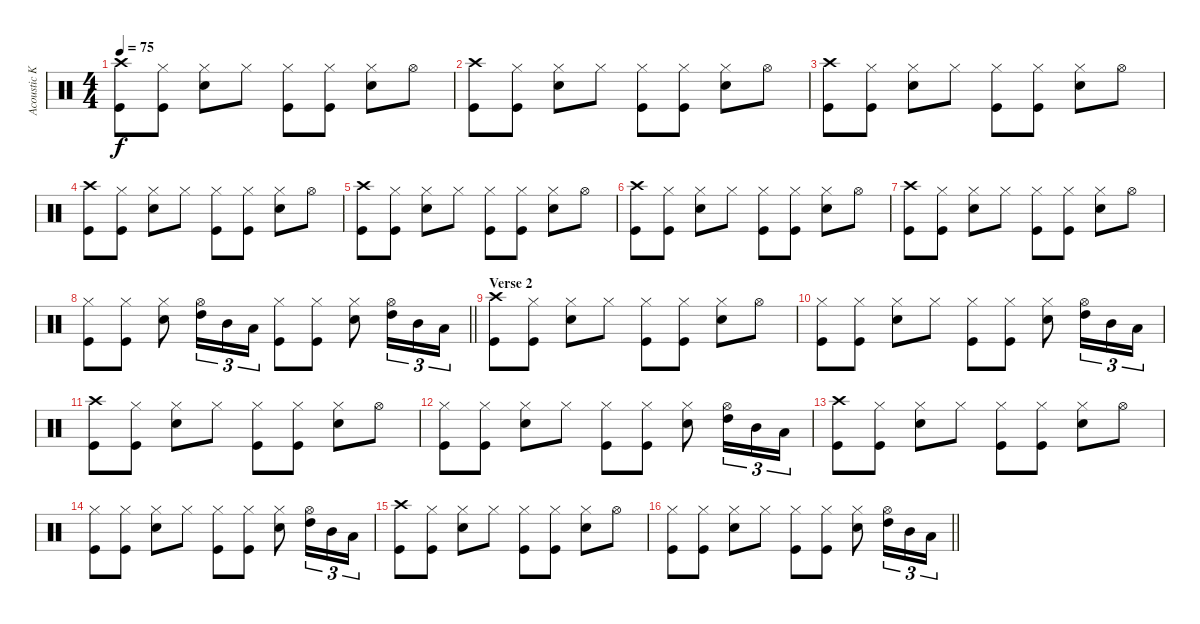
\track ("Acoustic Kit" "Acoustic K") {instrument percussion}
\staff {score}
\articulation defaults
\ts (4 4)
\tempo 75
\clef neutral
\ks c
("Crash high (hit)" "Kick (hit)").8{dy f} ("Hi-Hat (closed)" "Kick (hit)").8 ("Hi-Hat (closed)" "Snare (hit) 2").8 "Hi-Hat (closed)".8 ("Hi-Hat (closed)" "Kick (hit)").8 ("Hi-Hat (closed)" "Kick (hit)").8 ("Hi-Hat (closed)" "Snare (hit) 2").8 "Hi-Hat (open)".8 |
("Crash high (hit)" "Kick (hit)").8 ("Hi-Hat (closed)" "Kick (hit)").8 ("Hi-Hat (closed)" "Snare (hit) 2").8 "Hi-Hat (closed)".8 ("Hi-Hat (closed)" "Kick (hit)").8 ("Hi-Hat (closed)" "Kick (hit)").8 ("Hi-Hat (closed)" "Snare (hit) 2").8 "Hi-Hat (open)".8 |
("Crash high (hit)" "Kick (hit)").8 ("Hi-Hat (closed)" "Kick (hit)").8 ("Hi-Hat (closed)" "Snare (hit) 2").8 "Hi-Hat (closed)".8 ("Hi-Hat (closed)" "Kick (hit)").8 ("Hi-Hat (closed)" "Kick (hit)").8 ("Hi-Hat (closed)" "Snare (hit) 2").8 "Hi-Hat (open)".8 |
("Crash high (hit)" "Kick (hit)").8 ("Hi-Hat (closed)" "Kick (hit)").8 ("Hi-Hat (closed)" "Snare (hit) 2").8 "Hi-Hat (closed)".8 ("Hi-Hat (closed)" "Kick (hit)").8 ("Hi-Hat (closed)" "Kick (hit)").8 ("Hi-Hat (closed)" "Snare (hit) 2").8 "Hi-Hat (open)".8 |
("Crash high (hit)" "Kick (hit)").8 ("Hi-Hat (closed)" "Kick (hit)").8 ("Hi-Hat (closed)" "Snare (hit) 2").8 "Hi-Hat (closed)".8 ("Hi-Hat (closed)" "Kick (hit)").8 ("Hi-Hat (closed)" "Kick (hit)").8 ("Hi-Hat (closed)" "Snare (hit) 2").8 "Hi-Hat (open)".8 |
("Crash high (hit)" "Kick (hit)").8 ("Hi-Hat (closed)" "Kick (hit)").8 ("Hi-Hat (closed)" "Snare (hit) 2").8 "Hi-Hat (closed)".8 ("Hi-Hat (closed)" "Kick (hit)").8 ("Hi-Hat (closed)" "Kick (hit)").8 ("Hi-Hat (closed)" "Snare (hit) 2").8 "Hi-Hat (open)".8 |
("Crash high (hit)" "Kick (hit)").8 ("Hi-Hat (closed)" "Kick (hit)").8 ("Hi-Hat (closed)" "Snare (hit) 2").8 "Hi-Hat (closed)".8 ("Hi-Hat (closed)" "Kick (hit)").8 ("Hi-Hat (closed)" "Kick (hit)").8 ("Hi-Hat (closed)" "Snare (hit) 2").8 "Hi-Hat (open)".8 |
\barLineRight lightlight
("Hi-Hat (closed)" "Kick (hit)").8 ("Hi-Hat (closed)" "Kick (hit)").8 ("Hi-Hat (closed)" "Snare (hit) 2").8 ("Hi-Hat (open)" "High Tom (hit)").16{tu (3 2)} "Mid Tom (hit)".16{tu (3 2)} "Low Tom (hit)".16{tu (3 2)} ("Hi-Hat (closed)" "Kick (hit)").8 ("Hi-Hat (closed)" "Kick (hit)").8 ("Hi-Hat (closed)" "Snare (hit) 2").8 ("Hi-Hat (open)" "High Tom (hit)").16{tu (3 2)} "Mid Tom (hit)".16{tu (3 2)} "Low Tom (hit)".16{tu (3 2)} |
\section ("" "Verse 2")
("Crash high (hit)" "Kick (hit)").8 ("Hi-Hat (closed)" "Kick (hit)").8 ("Hi-Hat (closed)" "Snare (hit) 2").8 "Hi-Hat (closed)".8 ("Hi-Hat (closed)" "Kick (hit)").8 ("Hi-Hat (closed)" "Kick (hit)").8 ("Hi-Hat (closed)" "Snare (hit) 2").8 "Hi-Hat (open)".8 |
("Hi-Hat (closed)" "Kick (hit)").8 ("Hi-Hat (closed)" "Kick (hit)").8 ("Hi-Hat (closed)" "Snare (hit) 2").8 "Hi-Hat (closed)".8 ("Hi-Hat (closed)" "Kick (hit)").8 ("Hi-Hat (closed)" "Kick (hit)").8 ("Hi-Hat (closed)" "Snare (hit) 2").8 ("Hi-Hat (open)" "High Tom (hit)").16{tu (3 2)} "Mid Tom (hit)".16{tu (3 2)} "Low Tom (hit)".16{tu (3 2)} |
("Crash high (hit)" "Kick (hit)").8 ("Hi-Hat (closed)" "Kick (hit)").8 ("Hi-Hat (closed)" "Snare (hit) 2").8 "Hi-Hat (closed)".8 ("Hi-Hat (closed)" "Kick (hit)").8 ("Hi-Hat (closed)" "Kick (hit)").8 ("Hi-Hat (closed)" "Snare (hit) 2").8 "Hi-Hat (open)".8 |
("Hi-Hat (closed)" "Kick (hit)").8 ("Hi-Hat (closed)" "Kick (hit)").8 ("Hi-Hat (closed)" "Snare (hit) 2").8 "Hi-Hat (closed)".8 ("Hi-Hat (closed)" "Kick (hit)").8 ("Hi-Hat (closed)" "Kick (hit)").8 ("Hi-Hat (closed)" "Snare (hit) 2").8 ("Hi-Hat (open)" "High Tom (hit)").16{tu (3 2)} "Mid Tom (hit)".16{tu (3 2)} "Low Tom (hit)".16{tu (3 2)} |
("Crash high (hit)" "Kick (hit)").8 ("Hi-Hat (closed)" "Kick (hit)").8 ("Hi-Hat (closed)" "Snare (hit) 2").8 "Hi-Hat (closed)".8 ("Hi-Hat (closed)" "Kick (hit)").8 ("Hi-Hat (closed)" "Kick (hit)").8 ("Hi-Hat (closed)" "Snare (hit) 2").8 "Hi-Hat (open)".8 |
("Hi-Hat (closed)" "Kick (hit)").8 ("Hi-Hat (closed)" "Kick (hit)").8 ("Hi-Hat (closed)" "Snare (hit) 2").8 "Hi-Hat (closed)".8 ("Hi-Hat (closed)" "Kick (hit)").8 ("Hi-Hat (closed)" "Kick (hit)").8 ("Hi-Hat (closed)" "Snare (hit) 2").8 ("Hi-Hat (open)" "High Tom (hit)").16{tu (3 2)} "Mid Tom (hit)".16{tu (3 2)} "Low Tom (hit)".16{tu (3 2)} |
("Crash high (hit)" "Kick (hit)").8 ("Hi-Hat (closed)" "Kick (hit)").8 ("Hi-Hat (closed)" "Snare (hit) 2").8 "Hi-Hat (closed)".8 ("Hi-Hat (closed)" "Kick (hit)").8 ("Hi-Hat (closed)" "Kick (hit)").8 ("Hi-Hat (closed)" "Snare (hit) 2").8 "Hi-Hat (open)".8 |
\barLineRight lightlight
("Hi-Hat (closed)" "Kick (hit)").8 ("Hi-Hat (closed)" "Kick (hit)").8 ("Hi-Hat (closed)" "Snare (hit) 2").8 "Hi-Hat (closed)".8 ("Hi-Hat (closed)" "Kick (hit)").8 ("Hi-Hat (closed)" "Kick (hit)").8 ("Hi-Hat (closed)" "Snare (hit) 2").8 ("Hi-Hat (open)" "High Tom (hit)").16{tu (3 2)} "Mid Tom (hit)".16{tu (3 2)} "Low Tom (hit)".16{tu (3 2)}
